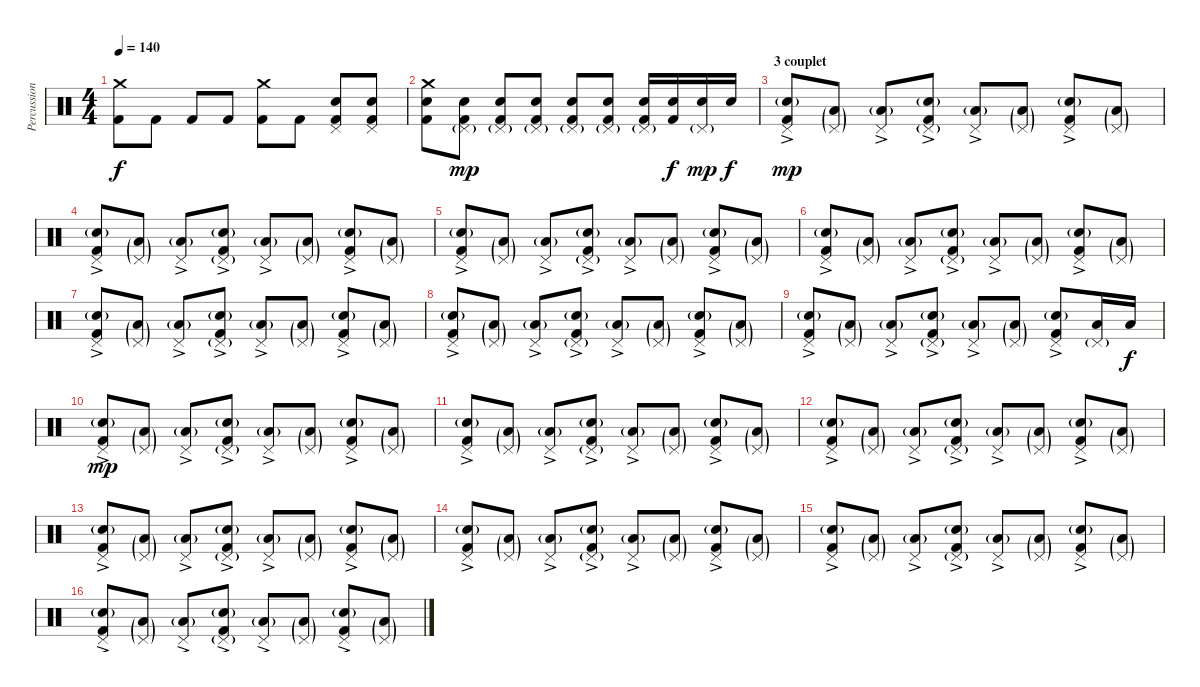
\track ("Percussions" "Percussion") {instrument percussion}
\staff {score}
\articulation defaults
\ts (4 4)
\tempo 140
\clef neutral
\ks c
("Crash medium (hit)" "Kick (hit) 2").8{dy f} "Kick (hit) 2".8 "Kick (hit) 2".8 "Kick (hit) 2".8 ("Crash medium (hit)" "Kick (hit) 2").8 "Kick (hit) 2".8 ("Pedal Hi-Hat (hit)" "Electric Snare (hit)" "Kick (hit) 2").8 ("Pedal Hi-Hat (hit)" "Electric Snare (hit)" "Kick (hit) 2").8 |
("Crash medium (hit)" "Electric Snare (hit)" "Kick (hit) 2").8 ("Pedal Hi-Hat (hit)"{g} "Electric Snare (hit)" "Kick (hit) 2").8{dy mp} ("Pedal Hi-Hat (hit)"{g} "Electric Snare (hit)" "Kick (hit) 2").8 ("Pedal Hi-Hat (hit)"{g} "Electric Snare (hit)" "Kick (hit) 2").8 ("Pedal Hi-Hat (hit)"{g} "Electric Snare (hit)" "Kick (hit) 2").8 ("Pedal Hi-Hat (hit)"{g} "Electric Snare (hit)" "Kick (hit) 2").8 ("Pedal Hi-Hat (hit)"{g} "Electric Snare (hit)" "Kick (hit) 2").16 ("Electric Snare (hit)" "Kick (hit) 2").16{dy f} ("Pedal Hi-Hat (hit)"{g} "Electric Snare (hit)").16{dy mp} "Electric Snare (hit)".16{dy f} |
\section ("" "3 couplet")
("Pedal Hi-Hat (hit)"{ac} "Electric Snare (hit)"{g ac} "Kick (hit) 2").8{dy mp} ("Pedal Hi-Hat (hit)"{g} "Low Tom (hit)"{g}).8 ("Pedal Hi-Hat (hit)"{ac} "Low Tom (hit)"{g}).8 ("Pedal Hi-Hat (hit)"{g} "Electric Snare (hit)"{g ac} "Kick (hit) 2").8 ("Pedal Hi-Hat (hit)"{ac} "Low Tom (hit)"{g}).8 ("Pedal Hi-Hat (hit)"{g} "Low Tom (hit)"{g}).8 ("Pedal Hi-Hat (hit)"{ac} "Electric Snare (hit)"{g ac} "Kick (hit) 2").8 ("Pedal Hi-Hat (hit)"{g} "Low Tom (hit)"{g}).8 |
("Pedal Hi-Hat (hit)"{ac} "Electric Snare (hit)"{g ac} "Kick (hit) 2").8 ("Pedal Hi-Hat (hit)"{g} "Low Tom (hit)"{g}).8 ("Pedal Hi-Hat (hit)"{ac} "Low Tom (hit)"{g}).8 ("Pedal Hi-Hat (hit)"{g} "Electric Snare (hit)"{g ac} "Kick (hit) 2").8 ("Pedal Hi-Hat (hit)"{ac} "Low Tom (hit)"{g}).8 ("Pedal Hi-Hat (hit)"{g} "Low Tom (hit)"{g}).8 ("Pedal Hi-Hat (hit)"{ac} "Electric Snare (hit)"{g ac} "Kick (hit) 2").8 ("Pedal Hi-Hat (hit)"{g} "Low Tom (hit)"{g}).8 |
("Pedal Hi-Hat (hit)"{ac} "Electric Snare (hit)"{g ac} "Kick (hit) 2").8 ("Pedal Hi-Hat (hit)"{g} "Low Tom (hit)"{g}).8 ("Pedal Hi-Hat (hit)"{ac} "Low Tom (hit)"{g}).8 ("Pedal Hi-Hat (hit)"{g} "Electric Snare (hit)"{g ac} "Kick (hit) 2").8 ("Pedal Hi-Hat (hit)"{ac} "Low Tom (hit)"{g}).8 ("Pedal Hi-Hat (hit)"{g} "Low Tom (hit)"{g}).8 ("Pedal Hi-Hat (hit)"{ac} "Electric Snare (hit)"{g ac} "Kick (hit) 2").8 ("Pedal Hi-Hat (hit)"{g} "Low Tom (hit)"{g}).8 |
("Pedal Hi-Hat (hit)"{ac} "Electric Snare (hit)"{g ac} "Kick (hit) 2").8 ("Pedal Hi-Hat (hit)"{g} "Low Tom (hit)"{g}).8 ("Pedal Hi-Hat (hit)"{ac} "Low Tom (hit)"{g}).8 ("Pedal Hi-Hat (hit)"{g} "Electric Snare (hit)"{g ac} "Kick (hit) 2").8 ("Pedal Hi-Hat (hit)"{ac} "Low Tom (hit)"{g}).8 ("Pedal Hi-Hat (hit)"{g} "Low Tom (hit)"{g}).8 ("Pedal Hi-Hat (hit)"{ac} "Electric Snare (hit)"{g ac} "Kick (hit) 2").8 ("Pedal Hi-Hat (hit)"{g} "Low Tom (hit)"{g}).8 |
("Pedal Hi-Hat (hit)"{ac} "Electric Snare (hit)"{g ac} "Kick (hit) 2").8 ("Pedal Hi-Hat (hit)"{g} "Low Tom (hit)"{g}).8 ("Pedal Hi-Hat (hit)"{ac} "Low Tom (hit)"{g}).8 ("Pedal Hi-Hat (hit)"{g} "Electric Snare (hit)"{g ac} "Kick (hit) 2").8 ("Pedal Hi-Hat (hit)"{ac} "Low Tom (hit)"{g}).8 ("Pedal Hi-Hat (hit)"{g} "Low Tom (hit)"{g}).8 ("Pedal Hi-Hat (hit)"{ac} "Electric Snare (hit)"{g ac} "Kick (hit) 2").8 ("Pedal Hi-Hat (hit)"{g} "Low Tom (hit)"{g}).8 |
("Pedal Hi-Hat (hit)"{ac} "Electric Snare (hit)"{g ac} "Kick (hit) 2").8 ("Pedal Hi-Hat (hit)"{g} "Low Tom (hit)"{g}).8 ("Pedal Hi-Hat (hit)"{ac} "Low Tom (hit)"{g}).8 ("Pedal Hi-Hat (hit)"{g} "Electric Snare (hit)"{g ac} "Kick (hit) 2").8 ("Pedal Hi-Hat (hit)"{ac} "Low Tom (hit)"{g}).8 ("Pedal Hi-Hat (hit)"{g} "Low Tom (hit)"{g}).8 ("Pedal Hi-Hat (hit)"{ac} "Electric Snare (hit)"{g ac} "Kick (hit) 2").8 ("Pedal Hi-Hat (hit)"{g} "Low Tom (hit)"{g}).8 |
("Pedal Hi-Hat (hit)"{ac} "Electric Snare (hit)"{g ac} "Kick (hit) 2").8 ("Pedal Hi-Hat (hit)"{g} "Low Tom (hit)"{g}).8 ("Pedal Hi-Hat (hit)"{ac} "Low Tom (hit)"{g}).8 ("Pedal Hi-Hat (hit)"{g} "Electric Snare (hit)"{g ac} "Kick (hit) 2").8 ("Pedal Hi-Hat (hit)"{ac} "Low Tom (hit)"{g}).8 ("Pedal Hi-Hat (hit)"{g} "Low Tom (hit)"{g}).8 ("Pedal Hi-Hat (hit)"{ac} "Electric Snare (hit)"{g ac} "Kick (hit) 2").8 ("Pedal Hi-Hat (hit)"{g} "Low Tom (hit)").16 "Low Tom (hit)".16{dy f} |
("Pedal Hi-Hat (hit)"{ac} "Electric Snare (hit)"{g ac} "Kick (hit) 2").8{dy mp} ("Pedal Hi-Hat (hit)"{g} "Low Tom (hit)"{g}).8 ("Pedal Hi-Hat (hit)"{ac} "Low Tom (hit)"{g}).8 ("Pedal Hi-Hat (hit)"{g} "Electric Snare (hit)"{g ac} "Kick (hit) 2").8 ("Pedal Hi-Hat (hit)"{ac} "Low Tom (hit)"{g}).8 ("Pedal Hi-Hat (hit)"{g} "Low Tom (hit)"{g}).8 ("Pedal Hi-Hat (hit)"{ac} "Electric Snare (hit)"{g ac} "Kick (hit) 2").8 ("Pedal Hi-Hat (hit)"{g} "Low Tom (hit)"{g}).8 |
("Pedal Hi-Hat (hit)"{ac} "Electric Snare (hit)"{g ac} "Kick (hit) 2").8 ("Pedal Hi-Hat (hit)"{g} "Low Tom (hit)"{g}).8 ("Pedal Hi-Hat (hit)"{ac} "Low Tom (hit)"{g}).8 ("Pedal Hi-Hat (hit)"{g} "Electric Snare (hit)"{g ac} "Kick (hit) 2").8 ("Pedal Hi-Hat (hit)"{ac} "Low Tom (hit)"{g}).8 ("Pedal Hi-Hat (hit)"{g} "Low Tom (hit)"{g}).8 ("Pedal Hi-Hat (hit)"{ac} "Electric Snare (hit)"{g ac} "Kick (hit) 2").8 ("Pedal Hi-Hat (hit)"{g} "Low Tom (hit)"{g}).8 |
("Pedal Hi-Hat (hit)"{ac} "Electric Snare (hit)"{g ac} "Kick (hit) 2").8 ("Pedal Hi-Hat (hit)"{g} "Low Tom (hit)"{g}).8 ("Pedal Hi-Hat (hit)"{ac} "Low Tom (hit)"{g}).8 ("Pedal Hi-Hat (hit)"{g} "Electric Snare (hit)"{g ac} "Kick (hit) 2").8 ("Pedal Hi-Hat (hit)"{ac} "Low Tom (hit)"{g}).8 ("Pedal Hi-Hat (hit)"{g} "Low Tom (hit)"{g}).8 ("Pedal Hi-Hat (hit)"{ac} "Electric Snare (hit)"{g ac} "Kick (hit) 2").8 ("Pedal Hi-Hat (hit)"{g} "Low Tom (hit)"{g}).8 |
("Pedal Hi-Hat (hit)"{ac} "Electric Snare (hit)"{g ac} "Kick (hit) 2").8 ("Pedal Hi-Hat (hit)"{g} "Low Tom (hit)"{g}).8 ("Pedal Hi-Hat (hit)"{ac} "Low Tom (hit)"{g}).8 ("Pedal Hi-Hat (hit)"{g} "Electric Snare (hit)"{g ac} "Kick (hit) 2").8 ("Pedal Hi-Hat (hit)"{ac} "Low Tom (hit)"{g}).8 ("Pedal Hi-Hat (hit)"{g} "Low Tom (hit)"{g}).8 ("Pedal Hi-Hat (hit)"{ac} "Electric Snare (hit)"{g ac} "Kick (hit) 2").8 ("Pedal Hi-Hat (hit)"{g} "Low Tom (hit)"{g}).8 |
("Pedal Hi-Hat (hit)"{ac} "Electric Snare (hit)"{g ac} "Kick (hit) 2").8 ("Pedal Hi-Hat (hit)"{g} "Low Tom (hit)"{g}).8 ("Pedal Hi-Hat (hit)"{ac} "Low Tom (hit)"{g}).8 ("Pedal Hi-Hat (hit)"{g} "Electric Snare (hit)"{g ac} "Kick (hit) 2").8 ("Pedal Hi-Hat (hit)"{ac} "Low Tom (hit)"{g}).8 ("Pedal Hi-Hat (hit)"{g} "Low Tom (hit)"{g}).8 ("Pedal Hi-Hat (hit)"{ac} "Electric Snare (hit)"{g ac} "Kick (hit) 2").8 ("Pedal Hi-Hat (hit)"{g} "Low Tom (hit)"{g}).8 |
("Pedal Hi-Hat (hit)"{ac} "Electric Snare (hit)"{g ac} "Kick (hit) 2").8 ("Pedal Hi-Hat (hit)"{g} "Low Tom (hit)"{g}).8 ("Pedal Hi-Hat (hit)"{ac} "Low Tom (hit)"{g}).8 ("Pedal Hi-Hat (hit)"{g} "Electric Snare (hit)"{g ac} "Kick (hit) 2").8 ("Pedal Hi-Hat (hit)"{ac} "Low Tom (hit)"{g}).8 ("Pedal Hi-Hat (hit)"{g} "Low Tom (hit)"{g}).8 ("Pedal Hi-Hat (hit)"{ac} "Electric Snare (hit)"{g ac} "Kick (hit) 2").8 ("Pedal Hi-Hat (hit)"{g} "Low Tom (hit)"{g}).8 |
("Pedal Hi-Hat (hit)"{ac} "Electric Snare (hit)"{g ac} "Kick (hit) 2").8 ("Pedal Hi-Hat (hit)"{g} "Low Tom (hit)"{g}).8 ("Pedal Hi-Hat (hit)"{ac} "Low Tom (hit)"{g}).8 ("Pedal Hi-Hat (hit)"{g} "Electric Snare (hit)"{g ac} "Kick (hit) 2").8 ("Pedal Hi-Hat (hit)"{ac} "Low Tom (hit)"{g}).8 ("Pedal Hi-Hat (hit)"{g} "Low Tom (hit)"{g}).8 ("Pedal Hi-Hat (hit)"{ac} "Electric Snare (hit)"{g ac} "Kick (hit) 2").8 ("Pedal Hi-Hat (hit)"{g} "Low Tom (hit)"{g}).8
